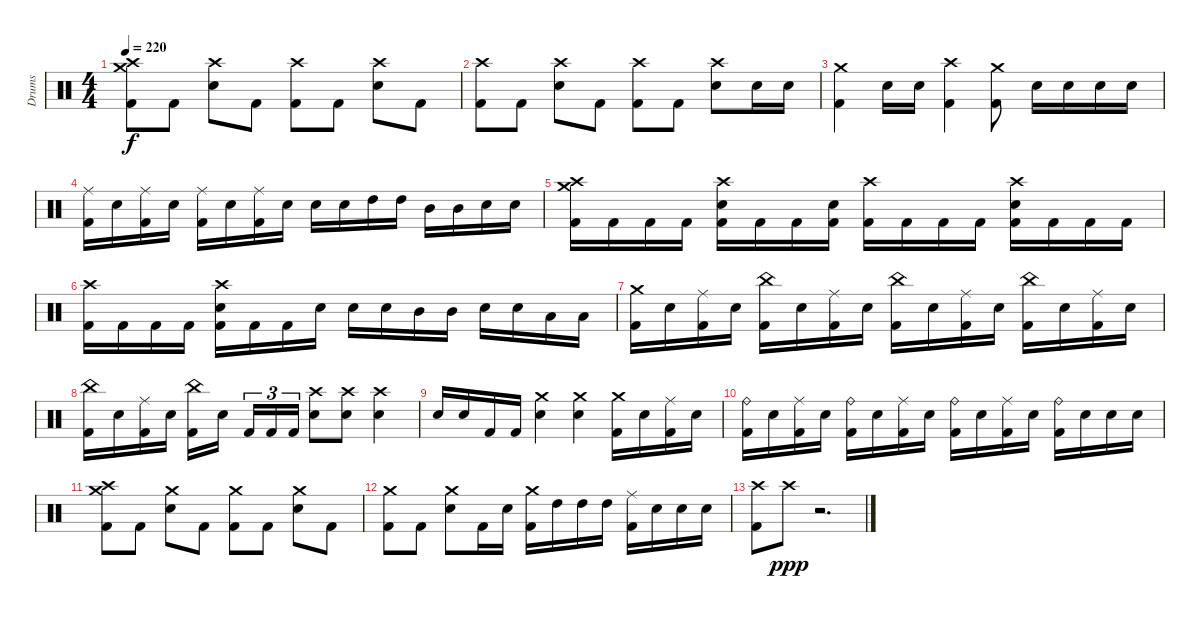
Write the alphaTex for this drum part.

\track ("Drums" "Drums") {instrument percussion}
\staff {score}
\articulation defaults
\ts (4 4)
\tempo 220
\clef neutral
\ks c
("Crash medium (hit)" "Crash high (hit)" "Kick (hit) 2").8{dy f} "Kick (hit) 2".8 ("Crash high (hit)" "Electric Snare (hit)").8 "Kick (hit) 2".8 ("Crash high (hit)" "Kick (hit) 2").8 "Kick (hit) 2".8 ("Crash high (hit)" "Electric Snare (hit)").8 "Kick (hit) 2".8 |
("Crash high (hit)" "Kick (hit) 2").8 "Kick (hit) 2".8 ("Crash high (hit)" "Electric Snare (hit)").8 "Kick (hit) 2".8 ("Crash high (hit)" "Kick (hit) 2").8 "Kick (hit) 2".8 ("Crash high (hit)" "Electric Snare (hit)").8 "Electric Snare (hit)".16 "Electric Snare (hit)".16 |
("Crash medium (hit)" "Kick (hit) 2").4 "Electric Snare (hit)".16 "Electric Snare (hit)".16 ("Crash high (hit)" "Kick (hit) 2").4 ("Crash medium (hit)" "Kick (hit) 2").8 "Electric Snare (hit)".16 "Electric Snare (hit)".16 "Electric Snare (hit)".16 "Electric Snare (hit)".16 |
("Ride (middle)" "Kick (hit) 2").16 "Electric Snare (hit)".16 ("Ride (middle)" "Kick (hit) 2").16 "Electric Snare (hit)".16 ("Ride (middle)" "Kick (hit) 2").16 "Electric Snare (hit)".16 ("Ride (middle)" "Kick (hit) 2").16 "Electric Snare (hit)".16 "Electric Snare (hit)".16 "Electric Snare (hit)".16 "High Tom (hit)".16 "High Tom (hit)".16 "Mid Tom (hit)".16 "Mid Tom (hit)".16 "Electric Snare (hit)".16 "Electric Snare (hit)".16 |
("Crash medium (hit)" "Crash high (hit)" "Kick (hit) 2").16 "Kick (hit) 2".16 "Kick (hit) 2".16 "Kick (hit) 2".16 ("Crash high (hit)" "Electric Snare (hit)" "Kick (hit) 2").16 "Kick (hit) 2".16 "Kick (hit) 2".16 ("Electric Snare (hit)" "Kick (hit) 2").16 ("Crash high (hit)" "Kick (hit) 2").16 "Kick (hit) 2".16 "Kick (hit) 2".16 "Kick (hit) 2".16 ("Crash high (hit)" "Electric Snare (hit)" "Kick (hit) 2").16 "Kick (hit) 2".16 "Kick (hit) 2".16 "Kick (hit) 2".16 |
("Crash high (hit)" "Kick (hit) 2").16 "Kick (hit) 2".16 "Kick (hit) 2".16 "Kick (hit) 2".16 ("Crash high (hit)" "Electric Snare (hit)" "Kick (hit) 2").16 "Kick (hit) 2".16 "Kick (hit) 2".16 "Electric Snare (hit)".16 "Electric Snare (hit)".16 "Electric Snare (hit)".16 "Mid Tom (hit)".16 "Mid Tom (hit)".16 "Electric Snare (hit)".16 "Electric Snare (hit)".16 "Low Tom (hit)".16 "Low Tom (hit)".16 |
("Crash medium (hit)" "Kick (hit) 2").16 "Electric Snare (hit)".16 ("Ride (middle)" "Kick (hit) 2").16 "Electric Snare (hit)".16 ("China (hit)" "Kick (hit) 2").16 "Electric Snare (hit)".16 ("Ride (middle)" "Kick (hit) 2").16 "Electric Snare (hit)".16 ("China (hit)" "Kick (hit) 2").16 "Electric Snare (hit)".16 ("Ride (middle)" "Kick (hit) 2").16 "Electric Snare (hit)".16 ("China (hit)" "Kick (hit) 2").16 "Electric Snare (hit)".16 ("Ride (middle)" "Kick (hit) 2").16 "Electric Snare (hit)".16 |
("China (hit)" "Kick (hit) 2").16 "Electric Snare (hit)".16 ("Ride (middle)" "Kick (hit) 2").16 "Electric Snare (hit)".16 ("China (hit)" "Kick (hit) 2").16 "Electric Snare (hit)".16{beam splitsecondary} "Kick (hit) 2".16{tu (3 2)} "Kick (hit) 2".16{tu (3 2)} "Kick (hit) 2".16{tu (3 2)} ("Crash high (hit)" "Electric Snare (hit)").8 ("Crash high (hit)" "Electric Snare (hit)").8 ("Crash high (hit)" "Electric Snare (hit)").4 |
"Electric Snare (hit)".16 "Electric Snare (hit)".16 "Kick (hit) 2".16 "Kick (hit) 2".16 ("Crash medium (hit)" "Electric Snare (hit)").4 ("Crash medium (hit)" "Electric Snare (hit)").4 ("Crash medium (hit)" "Kick (hit) 2").16 "Electric Snare (hit)".16 ("Ride (middle)" "Kick (hit) 2").16 "Electric Snare (hit)".16 |
("Ride (bell)" "Kick (hit) 2").16 "Electric Snare (hit)".16 ("Ride (middle)" "Kick (hit) 2").16 "Electric Snare (hit)".16 ("Ride (bell)" "Kick (hit) 2").16 "Electric Snare (hit)".16 ("Ride (middle)" "Kick (hit) 2").16 "Electric Snare (hit)".16 ("Ride (bell)" "Kick (hit) 2").16 "Electric Snare (hit)".16 ("Ride (middle)" "Kick (hit) 2").16 "Electric Snare (hit)".16 ("Ride (bell)" "Kick (hit) 2").16 "Electric Snare (hit)".16 "Electric Snare (hit)".16 "Electric Snare (hit)".16 |
("Crash medium (hit)" "Crash high (hit)" "Kick (hit) 2").8 "Kick (hit) 2".8 ("Crash medium (hit)" "Electric Snare (hit)").8 "Kick (hit) 2".8 ("Crash medium (hit)" "Kick (hit) 2").8 "Kick (hit) 2".8 ("Crash medium (hit)" "Electric Snare (hit)").8 "Kick (hit) 2".8 |
("Crash medium (hit)" "Kick (hit) 2").8 "Kick (hit) 2".8 ("Crash medium (hit)" "Electric Snare (hit)").8 "Kick (hit) 2".16 "Electric Snare (hit)".16 ("Crash medium (hit)" "Kick (hit) 2").16 "High Tom (hit)".16 "High Tom (hit)".16 "High Tom (hit)".16 ("Ride (middle)" "Kick (hit) 2").16 "Electric Snare (hit)".16 "Electric Snare (hit)".16 "Electric Snare (hit)".16 |
("Crash high (hit)" "Kick (hit) 2").8 "Crash high (hit)".8{dy ppp} r.2{d}
